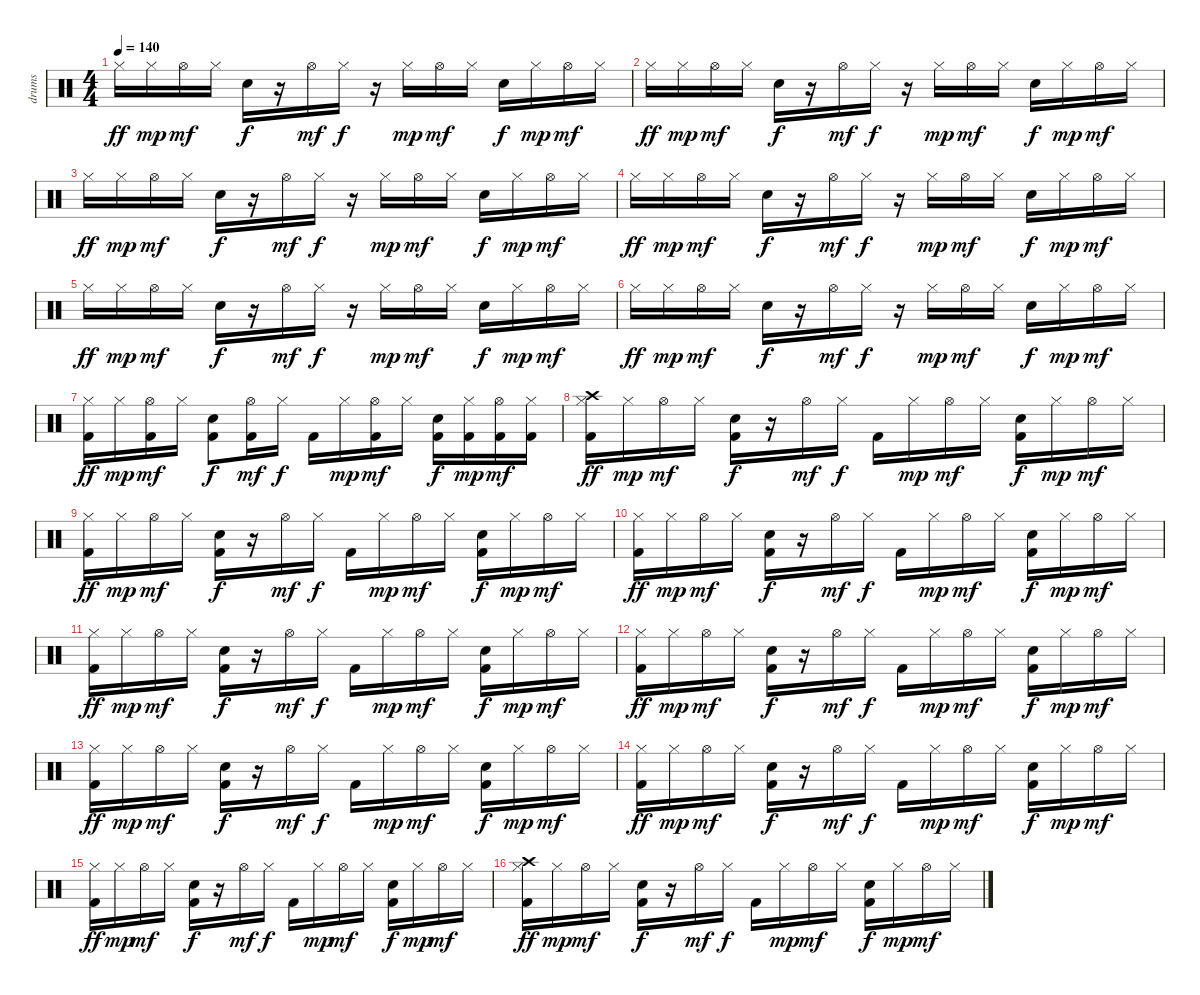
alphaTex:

\track ("drums" "drums") {instrument percussion}
\staff {score}
\articulation defaults
\ts (4 4)
\tempo 140
\clef neutral
\ks c "Hi-Hat (closed)".16{dy ff} "Hi-Hat (closed)".16{dy mp} "Hi-Hat (open)".16{dy mf} "Hi-Hat (closed)".16 "Hand Clap (hit)".16{dy f}
r.16 "Hi-Hat (open)".16{dy mf} "Hi-Hat (closed)".16{dy f} r.16 "Hi-Hat (closed)".16{dy mp} "Hi-Hat (open)".16{dy mf} "Hi-Hat (closed)".16 "Hand Clap (hit)".16{dy f} "Hi-Hat (closed)".16{dy mp} "Hi-Hat (open)".16{dy mf} "Hi-Hat (closed)".16 |
"Hi-Hat (closed)".16{dy ff} "Hi-Hat (closed)".16{dy mp} "Hi-Hat (open)".16{dy mf} "Hi-Hat (closed)".16 "Hand Clap (hit)".16{dy f} r.16 "Hi-Hat (open)".16{dy mf} "Hi-Hat (closed)".16{dy f} r.16 "Hi-Hat (closed)".16{dy mp} "Hi-Hat (open)".16{dy mf} "Hi-Hat (closed)".16 "Hand Clap (hit)".16{dy f} "Hi-Hat (closed)".16{dy mp} "Hi-Hat (open)".16{dy mf} "Hi-Hat (closed)".16 |
"Hi-Hat (closed)".16{dy ff} "Hi-Hat (closed)".16{dy mp} "Hi-Hat (open)".16{dy mf} "Hi-Hat (closed)".16 "Hand Clap (hit)".16{dy f} r.16 "Hi-Hat (open)".16{dy mf} "Hi-Hat (closed)".16{dy f} r.16 "Hi-Hat (closed)".16{dy mp} "Hi-Hat (open)".16{dy mf} "Hi-Hat (closed)".16 "Hand Clap (hit)".16{dy f} "Hi-Hat (closed)".16{dy mp} "Hi-Hat (open)".16{dy mf} "Hi-Hat (closed)".16 |
"Hi-Hat (closed)".16{dy ff} "Hi-Hat (closed)".16{dy mp} "Hi-Hat (open)".16{dy mf} "Hi-Hat (closed)".16 "Hand Clap (hit)".16{dy f} r.16 "Hi-Hat (open)".16{dy mf} "Hi-Hat (closed)".16{dy f} r.16 "Hi-Hat (closed)".16{dy mp} "Hi-Hat (open)".16{dy mf} "Hi-Hat (closed)".16 "Hand Clap (hit)".16{dy f} "Hi-Hat (closed)".16{dy mp} "Hi-Hat (open)".16{dy mf} "Hi-Hat (closed)".16 |
"Hi-Hat (closed)".16{dy ff} "Hi-Hat (closed)".16{dy mp} "Hi-Hat (open)".16{dy mf} "Hi-Hat (closed)".16 "Hand Clap (hit)".16{dy f} r.16 "Hi-Hat (open)".16{dy mf} "Hi-Hat (closed)".16{dy f} r.16 "Hi-Hat (closed)".16{dy mp} "Hi-Hat (open)".16{dy mf} "Hi-Hat (closed)".16 "Hand Clap (hit)".16{dy f} "Hi-Hat (closed)".16{dy mp} "Hi-Hat (open)".16{dy mf} "Hi-Hat (closed)".16 |
"Hi-Hat (closed)".16{dy ff} "Hi-Hat (closed)".16{dy mp} "Hi-Hat (open)".16{dy mf} "Hi-Hat (closed)".16 "Hand Clap (hit)".16{dy f} r.16 "Hi-Hat (open)".16{dy mf} "Hi-Hat (closed)".16{dy f} r.16 "Hi-Hat (closed)".16{dy mp} "Hi-Hat (open)".16{dy mf} "Hi-Hat (closed)".16 "Hand Clap (hit)".16{dy f} "Hi-Hat (closed)".16{dy mp} "Hi-Hat (open)".16{dy mf} "Hi-Hat (closed)".16 |
("Kick (hit) 2" "Hi-Hat (closed)").16{dy ff} "Hi-Hat (closed)".16{dy mp} ("Kick (hit) 2" "Hi-Hat (open)").16{dy mf} "Hi-Hat (closed)".16 ("Kick (hit) 2" "Hand Clap (hit)").8{dy f} ("Kick (hit) 2" "Hi-Hat (open)").16{dy mf} "Hi-Hat (closed)".16{dy f} "Kick (hit) 2".16 "Hi-Hat (closed)".16{dy mp} ("Kick (hit) 2" "Hi-Hat (open)").16{dy mf} "Hi-Hat (closed)".16 ("Kick (hit) 2" "Hand Clap (hit)").16{dy f} ("Kick (hit) 2" "Hi-Hat (closed)").16{dy mp} ("Kick (hit) 2" "Hi-Hat (open)").16{dy mf} ("Hi-Hat (closed)" "Kick (hit) 2").16 |
("Kick (hit) 2" "Crash high (hit)" "Hi-Hat (closed)").16{dy ff} "Hi-Hat (closed)".16{dy mp} "Hi-Hat (open)".16{dy mf} "Hi-Hat (closed)".16 ("Kick (hit) 2" "Hand Clap (hit)").16{dy f} r.16 "Hi-Hat (open)".16{dy mf} "Hi-Hat (closed)".16{dy f} "Kick (hit) 2".16 "Hi-Hat (closed)".16{dy mp} "Hi-Hat (open)".16{dy mf} "Hi-Hat (closed)".16 ("Kick (hit) 2" "Hand Clap (hit)").16{dy f} "Hi-Hat (closed)".16{dy mp} "Hi-Hat (open)".16{dy mf} "Hi-Hat (closed)".16 |
("Kick (hit) 2" "Hi-Hat (closed)").16{dy ff} "Hi-Hat (closed)".16{dy mp} "Hi-Hat (open)".16{dy mf} "Hi-Hat (closed)".16 ("Kick (hit) 2" "Hand Clap (hit)").16{dy f} r.16 "Hi-Hat (open)".16{dy mf} "Hi-Hat (closed)".16{dy f} "Kick (hit) 2".16 "Hi-Hat (closed)".16{dy mp} "Hi-Hat (open)".16{dy mf} "Hi-Hat (closed)".16 ("Kick (hit) 2" "Hand Clap (hit)").16{dy f} "Hi-Hat (closed)".16{dy mp} "Hi-Hat (open)".16{dy mf} "Hi-Hat (closed)".16 |
("Kick (hit) 2" "Hi-Hat (closed)").16{dy ff} "Hi-Hat (closed)".16{dy mp} "Hi-Hat (open)".16{dy mf} "Hi-Hat (closed)".16 ("Kick (hit) 2" "Hand Clap (hit)").16{dy f} r.16 "Hi-Hat (open)".16{dy mf} "Hi-Hat (closed)".16{dy f} "Kick (hit) 2".16 "Hi-Hat (closed)".16{dy mp} "Hi-Hat (open)".16{dy mf} "Hi-Hat (closed)".16 ("Kick (hit) 2" "Hand Clap (hit)").16{dy f} "Hi-Hat (closed)".16{dy mp} "Hi-Hat (open)".16{dy mf} "Hi-Hat (closed)".16 |
("Kick (hit) 2" "Hi-Hat (closed)").16{dy ff} "Hi-Hat (closed)".16{dy mp} "Hi-Hat (open)".16{dy mf} "Hi-Hat (closed)".16 ("Kick (hit) 2" "Hand Clap (hit)").16{dy f} r.16 "Hi-Hat (open)".16{dy mf} "Hi-Hat (closed)".16{dy f} "Kick (hit) 2".16 "Hi-Hat (closed)".16{dy mp} "Hi-Hat (open)".16{dy mf} "Hi-Hat (closed)".16 ("Kick (hit) 2" "Hand Clap (hit)").16{dy f} "Hi-Hat (closed)".16{dy mp} "Hi-Hat (open)".16{dy mf} "Hi-Hat (closed)".16 |
("Kick (hit) 2" "Hi-Hat (closed)").16{dy ff} "Hi-Hat (closed)".16{dy mp} "Hi-Hat (open)".16{dy mf} "Hi-Hat (closed)".16 ("Kick (hit) 2" "Hand Clap (hit)").16{dy f} r.16 "Hi-Hat (open)".16{dy mf} "Hi-Hat (closed)".16{dy f} "Kick (hit) 2".16 "Hi-Hat (closed)".16{dy mp} "Hi-Hat (open)".16{dy mf} "Hi-Hat (closed)".16 ("Kick (hit) 2" "Hand Clap (hit)").16{dy f} "Hi-Hat (closed)".16{dy mp} "Hi-Hat (open)".16{dy mf} "Hi-Hat (closed)".16 |
("Kick (hit) 2" "Hi-Hat (closed)").16{dy ff} "Hi-Hat (closed)".16{dy mp} "Hi-Hat (open)".16{dy mf} "Hi-Hat (closed)".16 ("Kick (hit) 2" "Hand Clap (hit)").16{dy f} r.16 "Hi-Hat (open)".16{dy mf} "Hi-Hat (closed)".16{dy f} "Kick (hit) 2".16 "Hi-Hat (closed)".16{dy mp} "Hi-Hat (open)".16{dy mf} "Hi-Hat (closed)".16 ("Kick (hit) 2" "Hand Clap (hit)").16{dy f} "Hi-Hat (closed)".16{dy mp} "Hi-Hat (open)".16{dy mf} "Hi-Hat (closed)".16 |
("Kick (hit) 2" "Hi-Hat (closed)").16{dy ff} "Hi-Hat (closed)".16{dy mp} "Hi-Hat (open)".16{dy mf} "Hi-Hat (closed)".16 ("Kick (hit) 2" "Hand Clap (hit)").16{dy f} r.16 "Hi-Hat (open)".16{dy mf} "Hi-Hat (closed)".16{dy f} "Kick (hit) 2".16 "Hi-Hat (closed)".16{dy mp} "Hi-Hat (open)".16{dy mf} "Hi-Hat (closed)".16 ("Kick (hit) 2" "Hand Clap (hit)").16{dy f} "Hi-Hat (closed)".16{dy mp} "Hi-Hat (open)".16{dy mf} "Hi-Hat (closed)".16 |
("Kick (hit) 2" "Hi-Hat (closed)").16{dy ff} "Hi-Hat (closed)".16{dy mp} "Hi-Hat (open)".16{dy mf} "Hi-Hat (closed)".16 ("Kick (hit) 2" "Hand Clap (hit)").16{dy f} r.16 "Hi-Hat (open)".16{dy mf} "Hi-Hat (closed)".16{dy f} "Kick (hit) 2".16 "Hi-Hat (closed)".16{dy mp} "Hi-Hat (open)".16{dy mf} "Hi-Hat (closed)".16 ("Kick (hit) 2" "Hand Clap (hit)").16{dy f} "Hi-Hat (closed)".16{dy mp} "Hi-Hat (open)".16{dy mf} "Hi-Hat (closed)".16 |
("Kick (hit) 2" "Crash high (hit)" "Hi-Hat (closed)").16{dy ff} "Hi-Hat (closed)".16{dy mp} "Hi-Hat (open)".16{dy mf} "Hi-Hat (closed)".16 ("Kick (hit) 2" "Hand Clap (hit)").16{dy f} r.16 "Hi-Hat (open)".16{dy mf} "Hi-Hat (closed)".16{dy f} "Kick (hit) 2".16 "Hi-Hat (closed)".16{dy mp} "Hi-Hat (open)".16{dy mf} "Hi-Hat (closed)".16 ("Kick (hit) 2" "Hand Clap (hit)").16{dy f} "Hi-Hat (closed)".16{dy mp} "Hi-Hat (open)".16{dy mf} "Hi-Hat (closed)".16
